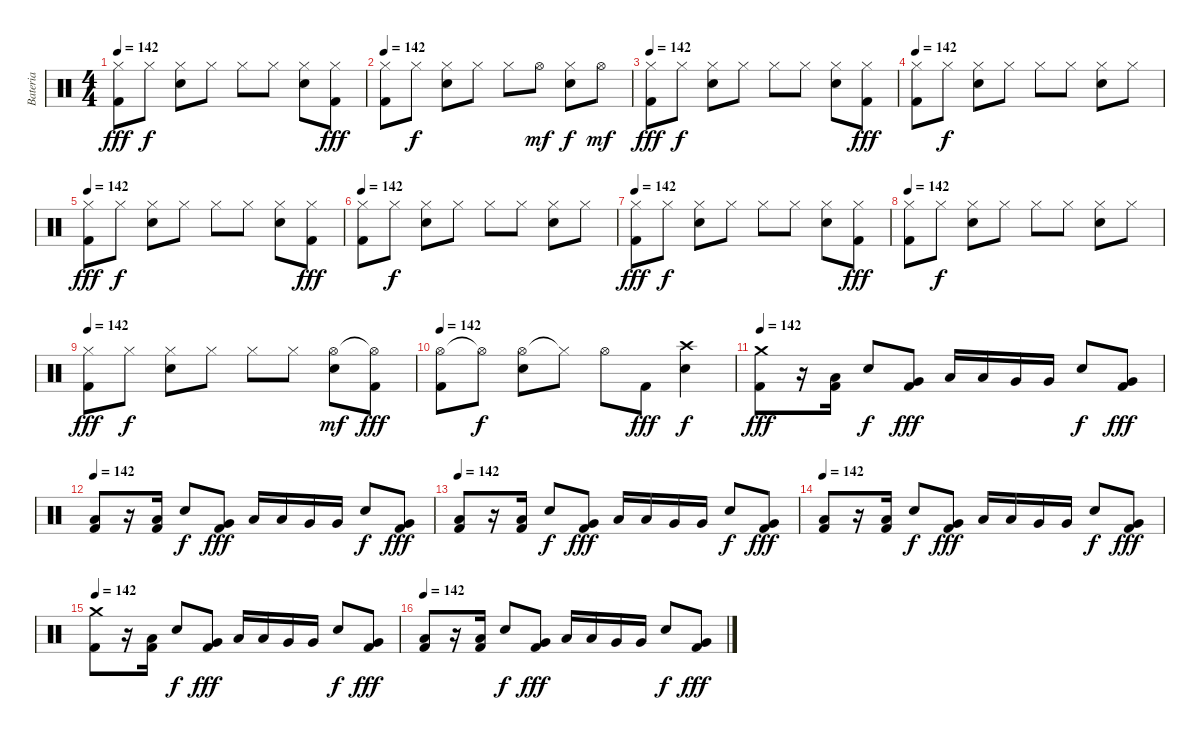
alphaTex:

\track ("Bateria" "Bateria") {instrument percussion}
\staff {score}
\articulation defaults
\ts (4 4)
\tempo 142
\clef neutral
\ks c
("Hi-Hat (closed)" "Kick (hit) 2").8{dy fff} "Hi-Hat (closed)".8{dy f} ("Hi-Hat (closed)" "Electric Snare (hit)").8 "Hi-Hat (closed)".8 "Hi-Hat (closed)".8 "Hi-Hat (closed)".8 ("Hi-Hat (closed)" "Electric Snare (hit)").8 ("Hi-Hat (closed)" "Kick (hit) 2").8{dy fff} |
\tempo 142
("Hi-Hat (closed)" "Kick (hit) 2").8 "Hi-Hat (closed)".8{dy f} ("Hi-Hat (closed)" "Electric Snare (hit)").8 "Hi-Hat (closed)".8 "Hi-Hat (closed)".8 "Hi-Hat (open)".8{dy mf} ("Hi-Hat (closed)" "Electric Snare (hit)").8{dy f} "Hi-Hat (open)".8{dy mf} |
\tempo 142
("Hi-Hat (closed)" "Kick (hit) 2").8{dy fff} "Hi-Hat (closed)".8{dy f} ("Hi-Hat (closed)" "Electric Snare (hit)").8 "Hi-Hat (closed)".8 "Hi-Hat (closed)".8 "Hi-Hat (closed)".8 ("Hi-Hat (closed)" "Electric Snare (hit)").8 ("Hi-Hat (closed)" "Kick (hit) 2").8{dy fff} |
\tempo 142
("Hi-Hat (closed)" "Kick (hit) 2").8 "Hi-Hat (closed)".8{dy f} ("Hi-Hat (closed)" "Electric Snare (hit)").8 "Hi-Hat (closed)".8 "Hi-Hat (closed)".8 "Hi-Hat (closed)".8 ("Hi-Hat (closed)" "Electric Snare (hit)").8 "Hi-Hat (closed)".8 |
\tempo 142
("Hi-Hat (closed)" "Kick (hit) 2").8{dy fff} "Hi-Hat (closed)".8{dy f} ("Hi-Hat (closed)" "Electric Snare (hit)").8 "Hi-Hat (closed)".8 "Hi-Hat (closed)".8 "Hi-Hat (closed)".8 ("Hi-Hat (closed)" "Electric Snare (hit)").8 ("Hi-Hat (closed)" "Kick (hit) 2").8{dy fff} |
\tempo 142
("Hi-Hat (closed)" "Kick (hit) 2").8 "Hi-Hat (closed)".8{dy f} ("Hi-Hat (closed)" "Electric Snare (hit)").8 "Hi-Hat (closed)".8 "Hi-Hat (closed)".8 "Hi-Hat (closed)".8 ("Hi-Hat (closed)" "Electric Snare (hit)").8 "Hi-Hat (closed)".8 |
\tempo 142
("Hi-Hat (closed)" "Kick (hit) 2").8{dy fff} "Hi-Hat (closed)".8{dy f} ("Hi-Hat (closed)" "Electric Snare (hit)").8 "Hi-Hat (closed)".8 "Hi-Hat (closed)".8 "Hi-Hat (closed)".8 ("Hi-Hat (closed)" "Electric Snare (hit)").8 ("Hi-Hat (closed)" "Kick (hit) 2").8{dy fff} |
\tempo 142
("Hi-Hat (closed)" "Kick (hit) 2").8 "Hi-Hat (closed)".8{dy f} ("Hi-Hat (closed)" "Electric Snare (hit)").8 "Hi-Hat (closed)".8 "Hi-Hat (closed)".8 "Hi-Hat (closed)".8 ("Hi-Hat (closed)" "Electric Snare (hit)").8 "Hi-Hat (closed)".8 |
\tempo 142
("Hi-Hat (closed)" "Kick (hit) 2").8{dy fff} "Hi-Hat (closed)".8{dy f} ("Hi-Hat (closed)" "Electric Snare (hit)").8 "Hi-Hat (closed)".8 "Hi-Hat (closed)".8 "Hi-Hat (closed)".8 ("Hi-Hat (open)" "Electric Snare (hit)").8{dy mf} ("Hi-Hat (open)"{t} "Kick (hit) 2").8{dy fff} |
\tempo 142
("Hi-Hat (open)" "Kick (hit) 2").8 "Hi-Hat (open)"{t}.8{dy f} ("Hi-Hat (open)" "Electric Snare (hit)").8 "Hi-Hat (closed)"{t}.8 "Hi-Hat (open)".8 "Kick (hit) 2".8{dy fff} ("Crash high (hit)" "Electric Snare (hit)").4{dy f} |
\tempo 142
("Crash medium (hit)" "Kick (hit) 2").8{dy fff} r.16 ("Low Tom (hit)" "Kick (hit) 2").16 "Electric Snare (hit)".8{dy f} ("Very Low Tom (hit)" "Kick (hit) 2").8{dy fff} "Low Tom (hit)".16 "Low Tom (hit)".16 "Very Low Tom (hit)".16 "Very Low Tom (hit)".16 "Electric Snare (hit)".8{dy f} ("Very Low Tom (hit)" "Kick (hit) 2").8{dy fff} |
\tempo 142
("Low Tom (hit)" "Kick (hit) 2").8 r.16 ("Low Tom (hit)" "Kick (hit) 2").16 "Electric Snare (hit)".8{dy f} ("Very Low Tom (hit)" "Kick (hit) 2").8{dy fff} "Low Tom (hit)".16 "Low Tom (hit)".16 "Very Low Tom (hit)".16 "Very Low Tom (hit)".16 "Electric Snare (hit)".8{dy f} ("Very Low Tom (hit)" "Kick (hit) 2").8{dy fff} |
\tempo 142
("Low Tom (hit)" "Kick (hit) 2").8 r.16 ("Low Tom (hit)" "Kick (hit) 2").16 "Electric Snare (hit)".8{dy f} ("Very Low Tom (hit)" "Kick (hit) 2").8{dy fff} "Low Tom (hit)".16 "Low Tom (hit)".16 "Very Low Tom (hit)".16 "Very Low Tom (hit)".16 "Electric Snare (hit)".8{dy f} ("Very Low Tom (hit)" "Kick (hit) 2").8{dy fff} |
\tempo 142
("Low Tom (hit)" "Kick (hit) 2").8 r.16 ("Low Tom (hit)" "Kick (hit) 2").16 "Electric Snare (hit)".8{dy f} ("Very Low Tom (hit)" "Kick (hit) 2").8{dy fff} "Low Tom (hit)".16 "Low Tom (hit)".16 "Very Low Tom (hit)".16 "Very Low Tom (hit)".16 "Electric Snare (hit)".8{dy f} ("Very Low Tom (hit)" "Kick (hit) 2").8{dy fff} |
\tempo 142
("Crash medium (hit)" "Kick (hit) 2").8 r.16 ("Low Tom (hit)" "Kick (hit) 2").16 "Electric Snare (hit)".8{dy f} ("Very Low Tom (hit)" "Kick (hit) 2").8{dy fff} "Low Tom (hit)".16 "Low Tom (hit)".16 "Very Low Tom (hit)".16 "Very Low Tom (hit)".16 "Electric Snare (hit)".8{dy f} ("Very Low Tom (hit)" "Kick (hit) 2").8{dy fff} |
\tempo 142
("Low Tom (hit)" "Kick (hit) 2").8 r.16 ("Low Tom (hit)" "Kick (hit) 2").16 "Electric Snare (hit)".8{dy f} ("Very Low Tom (hit)" "Kick (hit) 2").8{dy fff} "Low Tom (hit)".16 "Low Tom (hit)".16 "Very Low Tom (hit)".16 "Very Low Tom (hit)".16 "Electric Snare (hit)".8{dy f} ("Very Low Tom (hit)" "Kick (hit) 2").8{dy fff}
